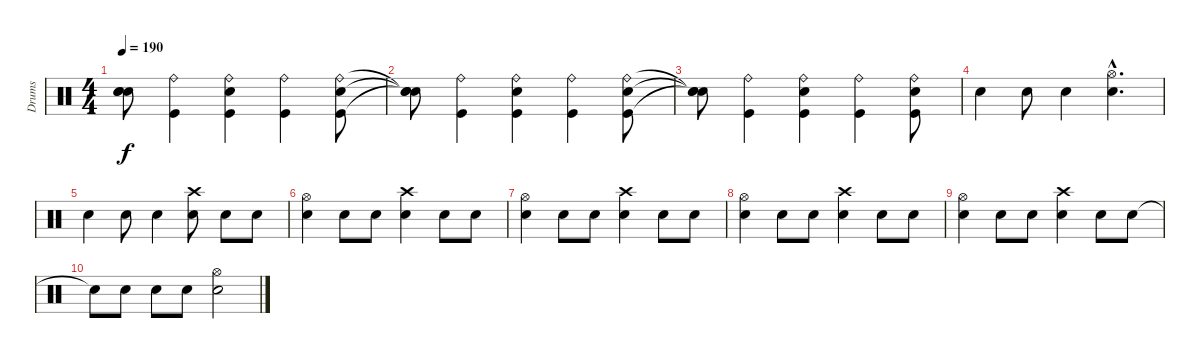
\track ("Drums" "Drums") {instrument percussion}
\staff {score}
\articulation defaults
\ts (4 4)
\tempo 190
\clef neutral
\ks c
("Snare (hit)"{t} "Snare (hit)"{t} "Snare (hit)"{t}).8{dy f} ("Kick (hit)" "Ride (bell)").4 ("Kick (hit)" "Snare (hit) 2" "Ride (bell)").4 ("Kick (hit)" "Ride (bell)").4 ("Kick (hit)" "Snare (hit) 2" "Ride (bell)").8 |
("Snare (hit)"{t} "Snare (hit)"{t} "Snare (hit)"{t}).8 ("Kick (hit)" "Ride (bell)").4 ("Kick (hit)" "Snare (hit) 2" "Ride (bell)").4 ("Kick (hit)" "Ride (bell)").4 ("Kick (hit)" "Snare (hit) 2" "Ride (bell)").8 |
("Snare (hit)"{t} "Snare (hit)"{t} "Snare (hit)"{t}).8 ("Kick (hit)" "Ride (bell)").4 ("Kick (hit)" "Snare (hit) 2" "Ride (bell)").4 ("Kick (hit)" "Ride (bell)").4 ("Kick (hit)" "Snare (hit) 2" "Ride (bell)").8 |
"Snare (hit) 2".4 "Snare (hit) 2".8 "Snare (hit) 2".4 ("Snare (hit) 2"{hac} "Hi-Hat (open)"{hac}).4{d} |
"Snare (hit) 2".4 "Snare (hit) 2".8 "Snare (hit) 2".4 ("Snare (hit) 2" "Crash high (hit)").8 "Snare (hit) 2".8 "Snare (hit) 2".8 |
("Snare (hit) 2" "Hi-Hat (open)").4 "Snare (hit) 2".8 "Snare (hit) 2".8 ("Snare (hit) 2" "Crash high (hit)").4 "Snare (hit) 2".8 "Snare (hit) 2".8 |
("Snare (hit) 2" "Hi-Hat (open)").4 "Snare (hit) 2".8 "Snare (hit) 2".8 ("Snare (hit) 2" "Crash high (hit)").4 "Snare (hit) 2".8 "Snare (hit) 2".8 |
("Snare (hit) 2" "Hi-Hat (open)").4 "Snare (hit) 2".8 "Snare (hit) 2".8 ("Snare (hit) 2" "Crash high (hit)").4 "Snare (hit) 2".8 "Snare (hit) 2".8 |
("Snare (hit) 2" "Hi-Hat (open)").4 "Snare (hit) 2".8 "Snare (hit) 2".8 ("Snare (hit) 2" "Crash high (hit)").4 "Snare (hit) 2".8 "Snare (hit) 2".8 |
"Snare (hit)"{t}.8 "Snare (hit) 2".8 "Snare (hit) 2".8 "Snare (hit) 2".8 ("Snare (hit) 2" "Hi-Hat (open)").2
